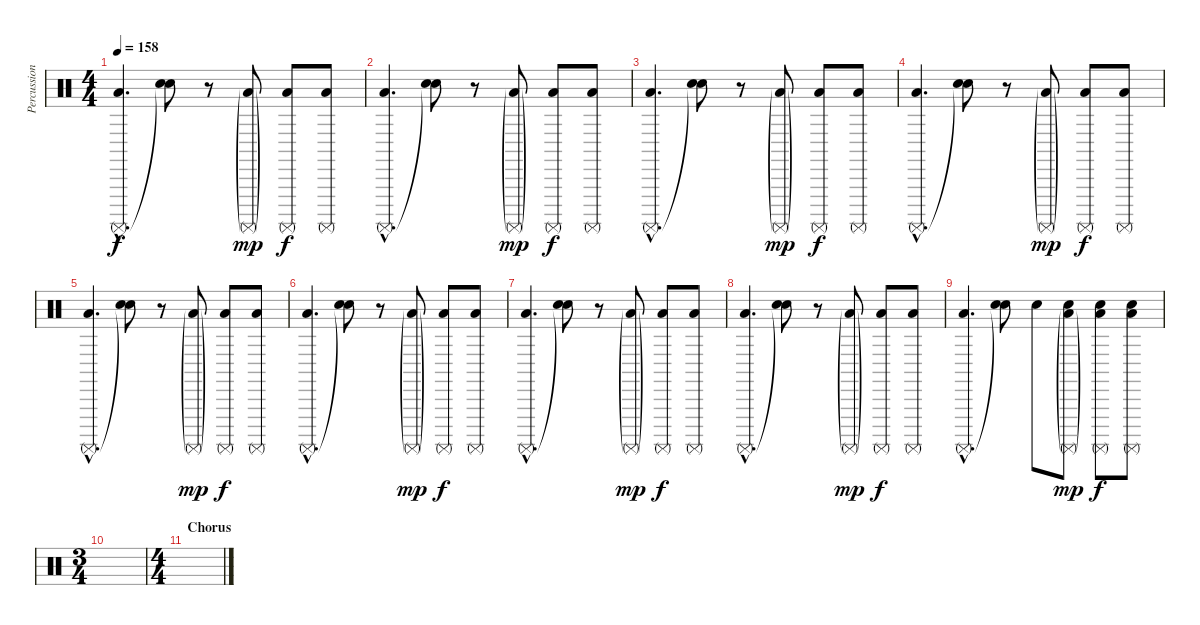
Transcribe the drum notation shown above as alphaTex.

\track ("Percussion" "Percussion") {instrument percussion}
\staff {score}
\articulation defaults
\ts (4 4)
\tempo 158
\clef neutral
\ks c
("Low Floor Tom (hit)"{hac} "Surdo (mute)"{hac}).4{d dy f} ("Hand Clap (hit)" "Snare (hit)"{t}).8 r.8 ("Low Floor Tom (hit)"{g} "Surdo (mute)"{g}).8{dy mp} ("Low Floor Tom (hit)" "Surdo (mute)").8{dy f} ("Low Floor Tom (hit)" "Surdo (mute)").8 |
("Low Floor Tom (hit)"{hac} "Surdo (mute)"{hac}).4{d} ("Hand Clap (hit)" "Snare (hit)"{t}).8 r.8 ("Low Floor Tom (hit)"{g} "Surdo (mute)"{g}).8{dy mp} ("Low Floor Tom (hit)" "Surdo (mute)").8{dy f} ("Low Floor Tom (hit)" "Surdo (mute)").8 |
("Low Floor Tom (hit)"{hac} "Surdo (mute)"{hac}).4{d} ("Hand Clap (hit)" "Snare (hit)"{t}).8 r.8 ("Low Floor Tom (hit)"{g} "Surdo (mute)"{g}).8{dy mp} ("Low Floor Tom (hit)" "Surdo (mute)").8{dy f} ("Low Floor Tom (hit)" "Surdo (mute)").8 |
("Low Floor Tom (hit)"{hac} "Surdo (mute)"{hac}).4{d} ("Hand Clap (hit)" "Snare (hit)"{t}).8 r.8 ("Low Floor Tom (hit)"{g} "Surdo (mute)"{g}).8{dy mp} ("Low Floor Tom (hit)" "Surdo (mute)").8{dy f} ("Low Floor Tom (hit)" "Surdo (mute)").8 |
("Low Floor Tom (hit)"{hac} "Surdo (mute)"{hac}).4{d} ("Hand Clap (hit)" "Snare (hit)"{t}).8 r.8 ("Low Floor Tom (hit)"{g} "Surdo (mute)"{g}).8{dy mp} ("Low Floor Tom (hit)" "Surdo (mute)").8{dy f} ("Low Floor Tom (hit)" "Surdo (mute)").8 |
("Low Floor Tom (hit)"{hac} "Surdo (mute)"{hac}).4{d} ("Hand Clap (hit)" "Snare (hit)"{t}).8 r.8 ("Low Floor Tom (hit)"{g} "Surdo (mute)"{g}).8{dy mp} ("Low Floor Tom (hit)" "Surdo (mute)").8{dy f} ("Low Floor Tom (hit)" "Surdo (mute)").8 |
("Low Floor Tom (hit)"{hac} "Surdo (mute)"{hac}).4{d} ("Hand Clap (hit)" "Snare (hit)"{t}).8 r.8 ("Low Floor Tom (hit)"{g} "Surdo (mute)"{g}).8{dy mp} ("Low Floor Tom (hit)" "Surdo (mute)").8{dy f} ("Low Floor Tom (hit)" "Surdo (mute)").8 |
("Low Floor Tom (hit)"{hac} "Surdo (mute)"{hac}).4{d} ("Hand Clap (hit)" "Snare (hit)"{t}).8 r.8 ("Low Floor Tom (hit)"{g} "Surdo (mute)"{g}).8{dy mp} ("Low Floor Tom (hit)" "Surdo (mute)").8{dy f} ("Low Floor Tom (hit)" "Surdo (mute)").8 |
("Low Floor Tom (hit)"{hac} "Surdo (mute)"{hac}).4{d} ("Hand Clap (hit)" "Snare (hit)"{t}).8 "Hand Clap (hit)".8 ("Hand Clap (hit)" "Low Floor Tom (hit)"{g} "Surdo (mute)"{g}).8{dy mp} ("Hand Clap (hit)" "Low Floor Tom (hit)" "Surdo (mute)").8{dy f} ("Hand Clap (hit)" "Low Floor Tom (hit)" "Surdo (mute)").8 |
\ts (3 4)
|
\ts (4 4)
\section ("" "Chorus")
